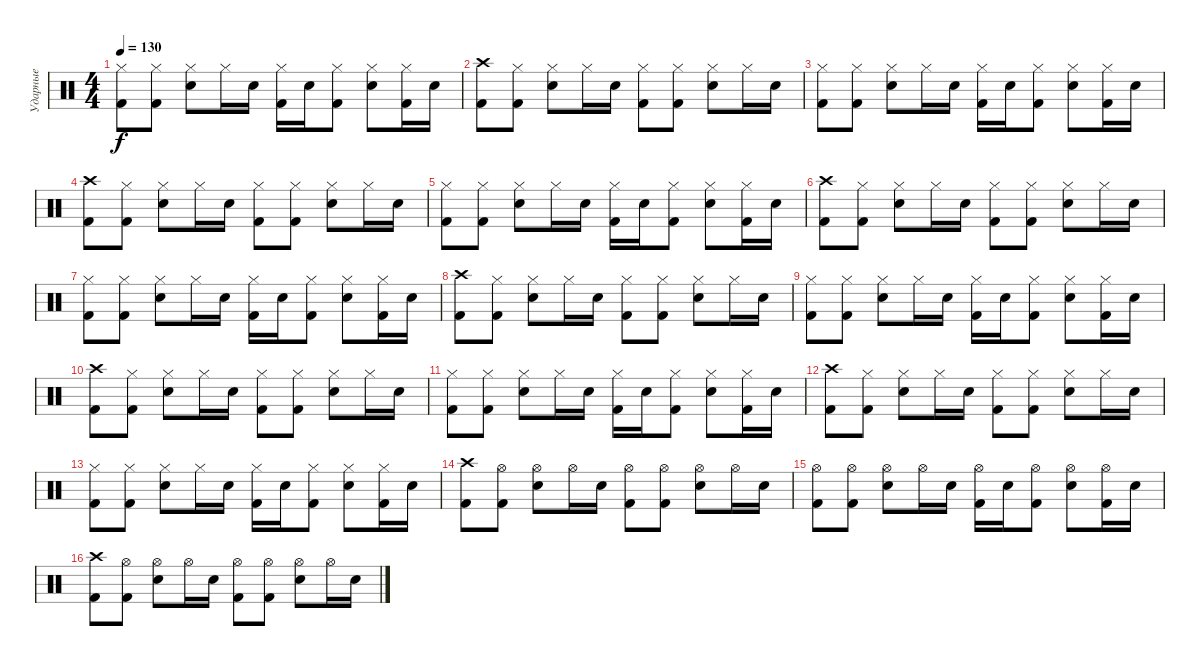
\track ("Ударные" "Ударные") {instrument percussion}
\staff {score}
\articulation defaults
\ts (4 4)
\tempo 130
\clef neutral
\ks c
("Kick (hit) 2" "Hi-Hat (closed)").8{dy f} ("Kick (hit) 2" "Hi-Hat (closed)").8 ("Snare (hit) 2" "Hi-Hat (closed)").8 "Hi-Hat (closed)".16 "Snare (hit) 2".16 ("Kick (hit) 2" "Hi-Hat (closed)").16 "Snare (hit) 2".16 ("Kick (hit) 2" "Hi-Hat (closed)").8 ("Snare (hit) 2" "Hi-Hat (closed)").8 ("Kick (hit) 2" "Hi-Hat (closed)").16 "Snare (hit) 2".16 |
("Kick (hit) 2" "Crash high (hit)").8 ("Kick (hit) 2" "Hi-Hat (closed)").8 ("Snare (hit) 2" "Hi-Hat (closed)").8 "Hi-Hat (closed)".16 "Snare (hit) 2".16 ("Kick (hit) 2" "Hi-Hat (closed)").8 ("Kick (hit) 2" "Hi-Hat (closed)").8 ("Snare (hit) 2" "Hi-Hat (closed)").8 "Hi-Hat (closed)".16 "Snare (hit) 2".16 |
("Kick (hit) 2" "Hi-Hat (closed)").8 ("Kick (hit) 2" "Hi-Hat (closed)").8 ("Snare (hit) 2" "Hi-Hat (closed)").8 "Hi-Hat (closed)".16 "Snare (hit) 2".16 ("Kick (hit) 2" "Hi-Hat (closed)").16 "Snare (hit) 2".16 ("Kick (hit) 2" "Hi-Hat (closed)").8 ("Snare (hit) 2" "Hi-Hat (closed)").8 ("Kick (hit) 2" "Hi-Hat (closed)").16 "Snare (hit) 2".16 |
("Kick (hit) 2" "Crash high (hit)").8 ("Kick (hit) 2" "Hi-Hat (closed)").8 ("Snare (hit) 2" "Hi-Hat (closed)").8 "Hi-Hat (closed)".16 "Snare (hit) 2".16 ("Kick (hit) 2" "Hi-Hat (closed)").8 ("Kick (hit) 2" "Hi-Hat (closed)").8 ("Snare (hit) 2" "Hi-Hat (closed)").8 "Hi-Hat (closed)".16 "Snare (hit) 2".16 |
("Kick (hit) 2" "Hi-Hat (closed)").8 ("Kick (hit) 2" "Hi-Hat (closed)").8 ("Snare (hit) 2" "Hi-Hat (closed)").8 "Hi-Hat (closed)".16 "Snare (hit) 2".16 ("Kick (hit) 2" "Hi-Hat (closed)").16 "Snare (hit) 2".16 ("Kick (hit) 2" "Hi-Hat (closed)").8 ("Snare (hit) 2" "Hi-Hat (closed)").8 ("Kick (hit) 2" "Hi-Hat (closed)").16 "Snare (hit) 2".16 |
("Kick (hit) 2" "Crash high (hit)").8 ("Kick (hit) 2" "Hi-Hat (closed)").8 ("Snare (hit) 2" "Hi-Hat (closed)").8 "Hi-Hat (closed)".16 "Snare (hit) 2".16 ("Kick (hit) 2" "Hi-Hat (closed)").8 ("Kick (hit) 2" "Hi-Hat (closed)").8 ("Snare (hit) 2" "Hi-Hat (closed)").8 "Hi-Hat (closed)".16 "Snare (hit) 2".16 |
("Kick (hit) 2" "Hi-Hat (closed)").8 ("Kick (hit) 2" "Hi-Hat (closed)").8 ("Snare (hit) 2" "Hi-Hat (closed)").8 "Hi-Hat (closed)".16 "Snare (hit) 2".16 ("Kick (hit) 2" "Hi-Hat (closed)").16 "Snare (hit) 2".16 ("Kick (hit) 2" "Hi-Hat (closed)").8 ("Snare (hit) 2" "Hi-Hat (closed)").8 ("Kick (hit) 2" "Hi-Hat (closed)").16 "Snare (hit) 2".16 |
("Kick (hit) 2" "Crash high (hit)").8 ("Kick (hit) 2" "Hi-Hat (closed)").8 ("Snare (hit) 2" "Hi-Hat (closed)").8 "Hi-Hat (closed)".16 "Snare (hit) 2".16 ("Kick (hit) 2" "Hi-Hat (closed)").8 ("Kick (hit) 2" "Hi-Hat (closed)").8 ("Snare (hit) 2" "Hi-Hat (closed)").8 "Hi-Hat (closed)".16 "Snare (hit) 2".16 |
("Kick (hit) 2" "Hi-Hat (closed)").8 ("Kick (hit) 2" "Hi-Hat (closed)").8 ("Snare (hit) 2" "Hi-Hat (closed)").8 "Hi-Hat (closed)".16 "Snare (hit) 2".16 ("Kick (hit) 2" "Hi-Hat (closed)").16 "Snare (hit) 2".16 ("Kick (hit) 2" "Hi-Hat (closed)").8 ("Snare (hit) 2" "Hi-Hat (closed)").8 ("Kick (hit) 2" "Hi-Hat (closed)").16 "Snare (hit) 2".16 |
("Kick (hit) 2" "Crash high (hit)").8 ("Kick (hit) 2" "Hi-Hat (closed)").8 ("Snare (hit) 2" "Hi-Hat (closed)").8 "Hi-Hat (closed)".16 "Snare (hit) 2".16 ("Kick (hit) 2" "Hi-Hat (closed)").8 ("Kick (hit) 2" "Hi-Hat (closed)").8 ("Snare (hit) 2" "Hi-Hat (closed)").8 "Hi-Hat (closed)".16 "Snare (hit) 2".16 |
("Kick (hit) 2" "Hi-Hat (closed)").8 ("Kick (hit) 2" "Hi-Hat (closed)").8 ("Snare (hit) 2" "Hi-Hat (closed)").8 "Hi-Hat (closed)".16 "Snare (hit) 2".16 ("Kick (hit) 2" "Hi-Hat (closed)").16 "Snare (hit) 2".16 ("Kick (hit) 2" "Hi-Hat (closed)").8 ("Snare (hit) 2" "Hi-Hat (closed)").8 ("Kick (hit) 2" "Hi-Hat (closed)").16 "Snare (hit) 2".16 |
("Kick (hit) 2" "Crash high (hit)").8 ("Kick (hit) 2" "Hi-Hat (closed)").8 ("Snare (hit) 2" "Hi-Hat (closed)").8 "Hi-Hat (closed)".16 "Snare (hit) 2".16 ("Kick (hit) 2" "Hi-Hat (closed)").8 ("Kick (hit) 2" "Hi-Hat (closed)").8 ("Snare (hit) 2" "Hi-Hat (closed)").8 "Hi-Hat (closed)".16 "Snare (hit) 2".16 |
("Kick (hit) 2" "Hi-Hat (closed)").8 ("Kick (hit) 2" "Hi-Hat (closed)").8 ("Snare (hit) 2" "Hi-Hat (closed)").8 "Hi-Hat (closed)".16 "Snare (hit) 2".16 ("Kick (hit) 2" "Hi-Hat (closed)").16 "Snare (hit) 2".16 ("Kick (hit) 2" "Hi-Hat (closed)").8 ("Snare (hit) 2" "Hi-Hat (closed)").8 ("Kick (hit) 2" "Hi-Hat (closed)").16 "Snare (hit) 2".16 |
("Kick (hit) 2" "Crash high (hit)").8 ("Kick (hit) 2" "Hi-Hat (open)").8 ("Snare (hit) 2" "Hi-Hat (open)").8 "Hi-Hat (open)".16 "Snare (hit) 2".16 ("Kick (hit) 2" "Hi-Hat (open)").8 ("Kick (hit) 2" "Hi-Hat (open)").8 ("Snare (hit) 2" "Hi-Hat (open)").8 "Hi-Hat (open)".16 "Snare (hit) 2".16 |
("Kick (hit) 2" "Hi-Hat (open)").8 ("Kick (hit) 2" "Hi-Hat (open)").8 ("Snare (hit) 2" "Hi-Hat (open)").8 "Hi-Hat (open)".16 "Snare (hit) 2".16 ("Kick (hit) 2" "Hi-Hat (open)").16 "Snare (hit) 2".16 ("Kick (hit) 2" "Hi-Hat (open)").8 ("Snare (hit) 2" "Hi-Hat (open)").8 ("Kick (hit) 2" "Hi-Hat (open)").16 "Snare (hit) 2".16 |
("Kick (hit) 2" "Crash high (hit)").8 ("Kick (hit) 2" "Hi-Hat (open)").8 ("Snare (hit) 2" "Hi-Hat (open)").8 "Hi-Hat (open)".16 "Snare (hit) 2".16 ("Kick (hit) 2" "Hi-Hat (open)").8 ("Kick (hit) 2" "Hi-Hat (open)").8 ("Snare (hit) 2" "Hi-Hat (open)").8 "Hi-Hat (open)".16 "Snare (hit) 2".16
